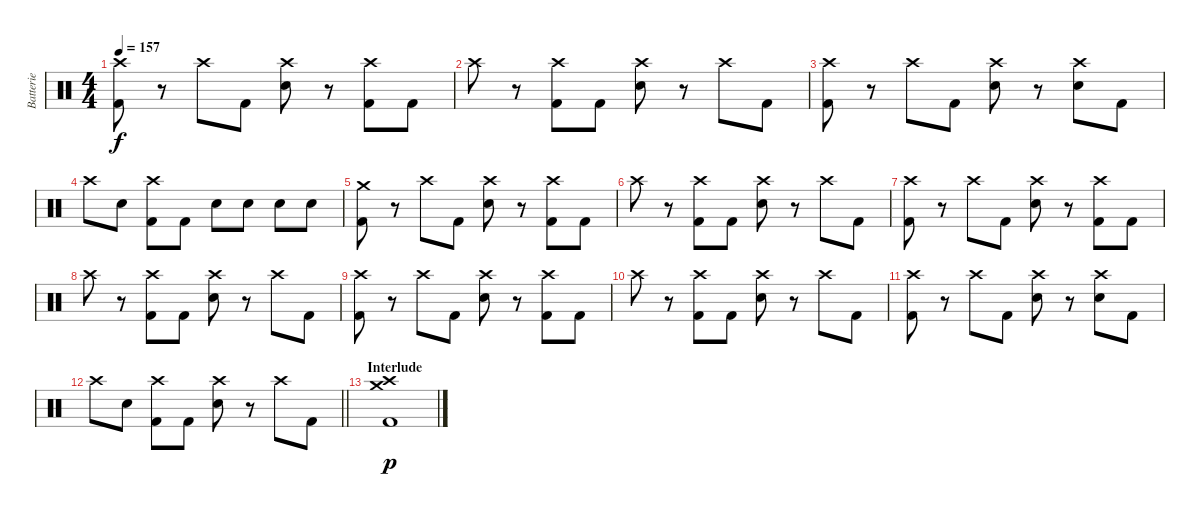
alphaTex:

\track ("Batterie" "Batterie") {instrument percussion}
\staff {score}
\articulation defaults
\ts (4 4)
\tempo 157
\clef neutral
\ks c
("Kick (hit) 2" "Crash high (hit)").8{dy f} r.8 "Crash high (hit)".8 "Kick (hit) 2".8 ("Electric Snare (hit)" "Crash high (hit)").8 r.8 ("Kick (hit) 2" "Crash high (hit)").8 "Kick (hit) 2".8 |
"Crash high (hit)".8 r.8 ("Kick (hit) 2" "Crash high (hit)").8 "Kick (hit) 2".8 ("Electric Snare (hit)" "Crash high (hit)").8 r.8 "Crash high (hit)".8 "Kick (hit) 2".8 |
("Kick (hit) 2" "Crash high (hit)").8 r.8 "Crash high (hit)".8 "Kick (hit) 2".8 ("Electric Snare (hit)" "Crash high (hit)").8 r.8 ("Electric Snare (hit)" "Crash high (hit)").8 "Kick (hit) 2".8 |
"Crash high (hit)".8 "Electric Snare (hit)".8 ("Kick (hit) 2" "Crash high (hit)").8 "Kick (hit) 2".8 "Electric Snare (hit)".8 "Electric Snare (hit)".8 "Electric Snare (hit)".8 "Electric Snare (hit)".8 |
("Kick (hit) 2" "Crash medium (hit)").8 r.8 "Crash high (hit)".8 "Kick (hit) 2".8 ("Electric Snare (hit)" "Crash high (hit)").8 r.8 ("Kick (hit) 2" "Crash high (hit)").8 "Kick (hit) 2".8 |
"Crash high (hit)".8 r.8 ("Kick (hit) 2" "Crash high (hit)").8 "Kick (hit) 2".8 ("Electric Snare (hit)" "Crash high (hit)").8 r.8 "Crash high (hit)".8 "Kick (hit) 2".8 |
("Kick (hit) 2" "Crash high (hit)").8 r.8 "Crash high (hit)".8 "Kick (hit) 2".8 ("Electric Snare (hit)" "Crash high (hit)").8 r.8 ("Kick (hit) 2" "Crash high (hit)").8 "Kick (hit) 2".8 |
"Crash high (hit)".8 r.8 ("Kick (hit) 2" "Crash high (hit)").8 "Kick (hit) 2".8 ("Electric Snare (hit)" "Crash high (hit)").8 r.8 "Crash high (hit)".8 "Kick (hit) 2".8 |
("Kick (hit) 2" "Crash high (hit)").8 r.8 "Crash high (hit)".8 "Kick (hit) 2".8 ("Electric Snare (hit)" "Crash high (hit)").8 r.8 ("Kick (hit) 2" "Crash high (hit)").8 "Kick (hit) 2".8 |
"Crash high (hit)".8 r.8 ("Kick (hit) 2" "Crash high (hit)").8 "Kick (hit) 2".8 ("Electric Snare (hit)" "Crash high (hit)").8 r.8 "Crash high (hit)".8 "Kick (hit) 2".8 |
("Kick (hit) 2" "Crash high (hit)").8 r.8 "Crash high (hit)".8 "Kick (hit) 2".8 ("Electric Snare (hit)" "Crash high (hit)").8 r.8 ("Electric Snare (hit)" "Crash high (hit)").8 "Kick (hit) 2".8 |
\barLineRight lightlight "Crash high (hit)".8 "Electric Snare (hit)".8
("Kick (hit) 2" "Crash high (hit)").8 "Kick (hit) 2".8 ("Electric Snare (hit)" "Crash high (hit)").8 r.8 "Crash high (hit)".8 "Kick (hit) 2".8 |
\section ("" "Interlude")
("Kick (hit) 2" "Crash medium (hit)" "Crash high (hit)").1{dy p}
